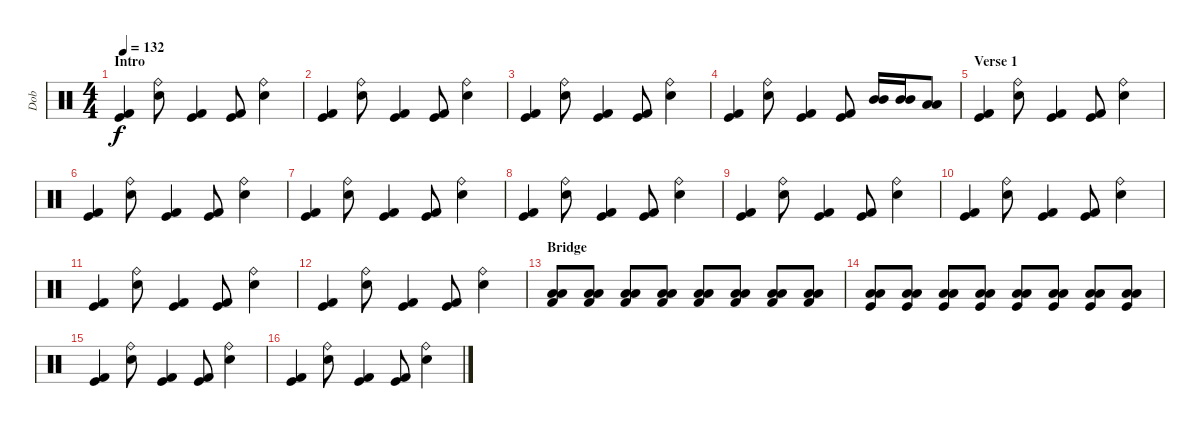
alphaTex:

\track ("Dob" "Dob") {instrument percussion}
\staff {score}
\articulation defaults
\ts (4 4)
\section ("" "Intro")
\tempo 132
\clef neutral
\ks c
("Kick (hit)" "Kick (hit) 2").4{dy f} ("Snare (hit) 2" "Ride (bell)").8 ("Kick (hit)" "Kick (hit) 2").4 ("Kick (hit)" "Kick (hit) 2").8 ("Snare (hit) 2" "Ride (bell)").4 |
("Kick (hit)" "Kick (hit) 2").4 ("Snare (hit) 2" "Ride (bell)").8 ("Kick (hit)" "Kick (hit) 2").4 ("Kick (hit)" "Kick (hit) 2").8 ("Snare (hit) 2" "Ride (bell)").4 |
("Kick (hit)" "Kick (hit) 2").4 ("Snare (hit) 2" "Ride (bell)").8 ("Kick (hit)" "Kick (hit) 2").4 ("Kick (hit)" "Kick (hit) 2").8 ("Snare (hit) 2" "Ride (bell)").4 |
("Kick (hit)" "Kick (hit) 2").4 ("Snare (hit) 2" "Ride (bell)").8 ("Kick (hit)" "Kick (hit) 2").4 ("Kick (hit)" "Kick (hit) 2").8 ("Mid Tom (hit)" "Mid Tom (hit)").16 ("Mid Tom (hit)" "Mid Tom (hit)").16 ("Low Tom (hit)" "Low Tom (hit)").8 |
\section ("" "Verse 1")
("Kick (hit)" "Kick (hit) 2").4 ("Snare (hit) 2" "Ride (bell)").8 ("Kick (hit)" "Kick (hit) 2").4 ("Kick (hit)" "Kick (hit) 2").8 ("Snare (hit) 2" "Ride (bell)").4 |
("Kick (hit)" "Kick (hit) 2").4 ("Snare (hit) 2" "Ride (bell)").8 ("Kick (hit)" "Kick (hit) 2").4 ("Kick (hit)" "Kick (hit) 2").8 ("Snare (hit) 2" "Ride (bell)").4 |
("Kick (hit)" "Kick (hit) 2").4 ("Snare (hit) 2" "Ride (bell)").8 ("Kick (hit)" "Kick (hit) 2").4 ("Kick (hit)" "Kick (hit) 2").8 ("Snare (hit) 2" "Ride (bell)").4 |
("Kick (hit)" "Kick (hit) 2").4 ("Snare (hit) 2" "Ride (bell)").8 ("Kick (hit)" "Kick (hit) 2").4 ("Kick (hit)" "Kick (hit) 2").8 ("Snare (hit) 2" "Ride (bell)").4 |
("Kick (hit)" "Kick (hit) 2").4 ("Snare (hit) 2" "Ride (bell)").8 ("Kick (hit)" "Kick (hit) 2").4 ("Kick (hit)" "Kick (hit) 2").8 ("Snare (hit) 2" "Ride (bell)").4 |
("Kick (hit)" "Kick (hit) 2").4 ("Snare (hit) 2" "Ride (bell)").8 ("Kick (hit)" "Kick (hit) 2").4 ("Kick (hit)" "Kick (hit) 2").8 ("Snare (hit) 2" "Ride (bell)").4 |
("Kick (hit)" "Kick (hit) 2").4 ("Snare (hit) 2" "Ride (bell)").8 ("Kick (hit)" "Kick (hit) 2").4 ("Kick (hit)" "Kick (hit) 2").8 ("Snare (hit) 2" "Ride (bell)").4 |
("Kick (hit)" "Kick (hit) 2").4 ("Snare (hit) 2" "Ride (bell)").8 ("Kick (hit)" "Kick (hit) 2").4 ("Kick (hit)" "Kick (hit) 2").8 ("Snare (hit) 2" "Ride (bell)").4 |
\section ("" "Bridge")
("Kick (hit) 2" "Low Tom (hit)" "Low Tom (hit)").8 ("Kick (hit) 2" "Low Tom (hit)" "Low Tom (hit)").8 ("Kick (hit) 2" "Low Tom (hit)" "Low Tom (hit)").8 ("Kick (hit) 2" "Low Tom (hit)" "Low Tom (hit)").8 ("Kick (hit) 2" "Low Tom (hit)" "Low Tom (hit)").8 ("Kick (hit) 2" "Low Tom (hit)" "Low Tom (hit)").8 ("Kick (hit) 2" "Low Tom (hit)" "Low Tom (hit)").8 ("Kick (hit) 2" "Low Tom (hit)" "Low Tom (hit)").8 |
("Kick (hit)" "Low Tom (hit)" "Low Tom (hit)").8 ("Kick (hit)" "Low Tom (hit)" "Low Tom (hit)").8 ("Kick (hit)" "Low Tom (hit)" "Low Tom (hit)").8 ("Kick (hit)" "Low Tom (hit)" "Low Tom (hit)").8 ("Kick (hit)" "Low Tom (hit)" "Low Tom (hit)").8 ("Kick (hit)" "Low Tom (hit)" "Low Tom (hit)").8 ("Kick (hit)" "Low Tom (hit)" "Low Tom (hit)").8 ("Kick (hit)" "Low Tom (hit)" "Low Tom (hit)").8 |
("Kick (hit)" "Kick (hit) 2").4 ("Snare (hit) 2" "Ride (bell)").8 ("Kick (hit)" "Kick (hit) 2").4 ("Kick (hit)" "Kick (hit) 2").8 ("Snare (hit) 2" "Ride (bell)").4 |
("Kick (hit)" "Kick (hit) 2").4 ("Snare (hit) 2" "Ride (bell)").8 ("Kick (hit)" "Kick (hit) 2").4 ("Kick (hit)" "Kick (hit) 2").8 ("Snare (hit) 2" "Ride (bell)").4
